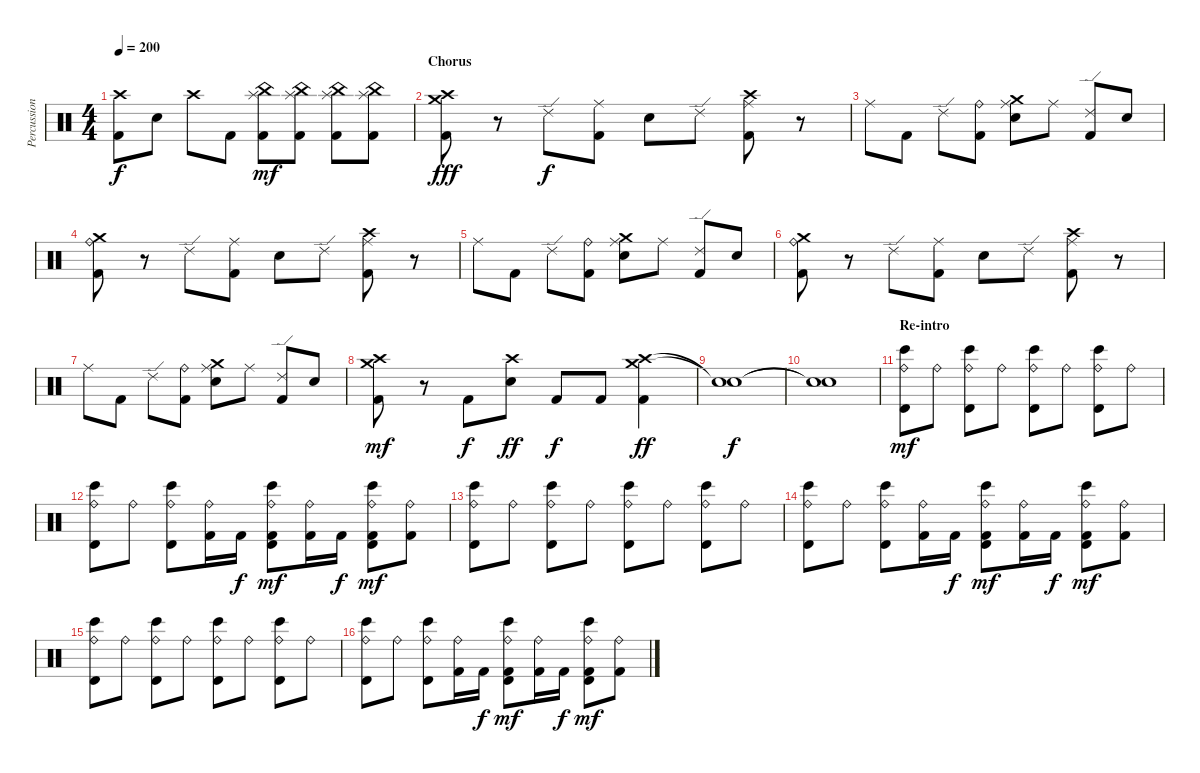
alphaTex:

\track ("Percussions" "Percussion") {instrument percussion}
\staff {score}
\articulation defaults
\ts (4 4)
\tempo 200
\clef neutral
\ks c
("Crash high (hit)" "Kick (hit) 2").8{dy f} "Electric Snare (hit)".8 "Crash high (hit)".8 "Kick (hit) 2".8 ("China (hit)" "Splash (hit)" "Kick (hit) 2").8{dy mf} ("China (hit)" "Splash (hit)" "Kick (hit) 2").8 ("China (hit)" "Splash (hit)" "Kick (hit) 2").8 ("China (hit)" "Splash (hit)" "Kick (hit) 2").8 |
\section ("" "Chorus")
("Crash medium (hit)" "Crash high (hit)" "Kick (hit) 2").8{dy fff} r.8 "Ride (edge) 2".8{dy f} ("Ride (middle)" "Kick (hit) 2").8 "Electric Snare (hit)".8 "Ride (edge) 2".8 ("Crash high (hit)" "Ride (middle)" "Kick (hit) 2").8 r.8 |
"Ride (middle)".8 "Kick (hit) 2".8 "Ride (edge) 2".8 ("Ride (bell)" "Kick (hit) 2").8 ("Crash medium (hit)" "Ride (middle)" "Electric Snare (hit)").8 "Ride (middle)".8 ("Ride (edge) 2" "Kick (hit) 2").8 "Electric Snare (hit)".8 |
("Crash medium (hit)" "Ride (bell)" "Kick (hit) 2").8 r.8 "Ride (edge) 2".8 ("Ride (middle)" "Kick (hit) 2").8 "Electric Snare (hit)".8 "Ride (edge) 2".8 ("Crash high (hit)" "Ride (middle)" "Kick (hit) 2").8 r.8 |
"Ride (middle)".8 "Kick (hit) 2".8 "Ride (edge) 2".8 ("Ride (bell)" "Kick (hit) 2").8 ("Crash medium (hit)" "Ride (middle)" "Electric Snare (hit)").8 "Ride (middle)".8 ("Ride (edge) 2" "Kick (hit) 2").8 "Electric Snare (hit)".8 |
("Crash medium (hit)" "Ride (bell)" "Kick (hit) 2").8 r.8 "Ride (edge) 2".8 ("Ride (middle)" "Kick (hit) 2").8 "Electric Snare (hit)".8 "Ride (edge) 2".8 ("Crash high (hit)" "Ride (middle)" "Kick (hit) 2").8 r.8 |
"Ride (middle)".8 "Kick (hit) 2".8 "Ride (edge) 2".8 ("Ride (bell)" "Kick (hit) 2").8 ("Crash medium (hit)" "Ride (middle)" "Electric Snare (hit)").8 "Ride (middle)".8 ("Ride (edge) 2" "Kick (hit) 2").8 "Electric Snare (hit)".8 |
("Crash medium (hit)" "Crash high (hit)" "Kick (hit) 2").8{dy mf} r.8 "Kick (hit) 2".8{dy f} ("Crash high (hit)" "Electric Snare (hit)").8{dy ff} "Kick (hit) 2".8{dy f} "Kick (hit) 2".8 ("Crash medium (hit)" "Crash high (hit)" "Kick (hit) 2").4{dy ff} |
("Snare (hit)"{t} "Snare (hit)"{t}).1{dy f} |
("Snare (hit)"{t} "Snare (hit)"{t}).1 |
\section ("" "Re-intro")
("Ride (bell)" "Timbale high (hit)" "Bongo High (hit)").8{dy mf} "Ride (bell)".8 ("Ride (bell)" "Timbale high (hit)" "Bongo High (hit)").8 "Ride (bell)".8 ("Ride (bell)" "Timbale high (hit)" "Bongo High (hit)").8 "Ride (bell)".8 ("Ride (bell)" "Timbale high (hit)" "Bongo High (hit)").8 "Ride (bell)".8 |
("Ride (bell)" "Timbale high (hit)" "Bongo High (hit)").8 "Ride (bell)".8 ("Ride (bell)" "Timbale high (hit)" "Bongo High (hit)").8 ("Ride (bell)" "Kick (hit) 2").16 "Kick (hit) 2".16{dy f} ("Ride (bell)" "Timbale high (hit)" "Bongo High (hit)" "Kick (hit) 2").8{dy mf} ("Ride (bell)" "Kick (hit) 2").16 "Kick (hit) 2".16{dy f} ("Ride (bell)" "Timbale high (hit)" "Bongo High (hit)" "Kick (hit) 2").8{dy mf} ("Ride (bell)" "Kick (hit) 2").8 |
("Ride (bell)" "Timbale high (hit)" "Bongo High (hit)").8 "Ride (bell)".8 ("Ride (bell)" "Timbale high (hit)" "Bongo High (hit)").8 "Ride (bell)".8 ("Ride (bell)" "Timbale high (hit)" "Bongo High (hit)").8 "Ride (bell)".8 ("Ride (bell)" "Timbale high (hit)" "Bongo High (hit)").8 "Ride (bell)".8 |
("Ride (bell)" "Timbale high (hit)" "Bongo High (hit)").8 "Ride (bell)".8 ("Ride (bell)" "Timbale high (hit)" "Bongo High (hit)").8 ("Ride (bell)" "Kick (hit) 2").16 "Kick (hit) 2".16{dy f} ("Ride (bell)" "Timbale high (hit)" "Bongo High (hit)" "Kick (hit) 2").8{dy mf} ("Ride (bell)" "Kick (hit) 2").16 "Kick (hit) 2".16{dy f} ("Ride (bell)" "Timbale high (hit)" "Bongo High (hit)" "Kick (hit) 2").8{dy mf} ("Ride (bell)" "Kick (hit) 2").8 |
("Ride (bell)" "Timbale high (hit)" "Bongo High (hit)").8 "Ride (bell)".8 ("Ride (bell)" "Timbale high (hit)" "Bongo High (hit)").8 "Ride (bell)".8 ("Ride (bell)" "Timbale high (hit)" "Bongo High (hit)").8 "Ride (bell)".8 ("Ride (bell)" "Timbale high (hit)" "Bongo High (hit)").8 "Ride (bell)".8 |
("Ride (bell)" "Timbale high (hit)" "Bongo High (hit)").8 "Ride (bell)".8 ("Ride (bell)" "Timbale high (hit)" "Bongo High (hit)").8 ("Ride (bell)" "Kick (hit) 2").16 "Kick (hit) 2".16{dy f} ("Ride (bell)" "Timbale high (hit)" "Bongo High (hit)" "Kick (hit) 2").8{dy mf} ("Ride (bell)" "Kick (hit) 2").16 "Kick (hit) 2".16{dy f} ("Ride (bell)" "Timbale high (hit)" "Bongo High (hit)" "Kick (hit) 2").8{dy mf} ("Ride (bell)" "Kick (hit) 2").8
